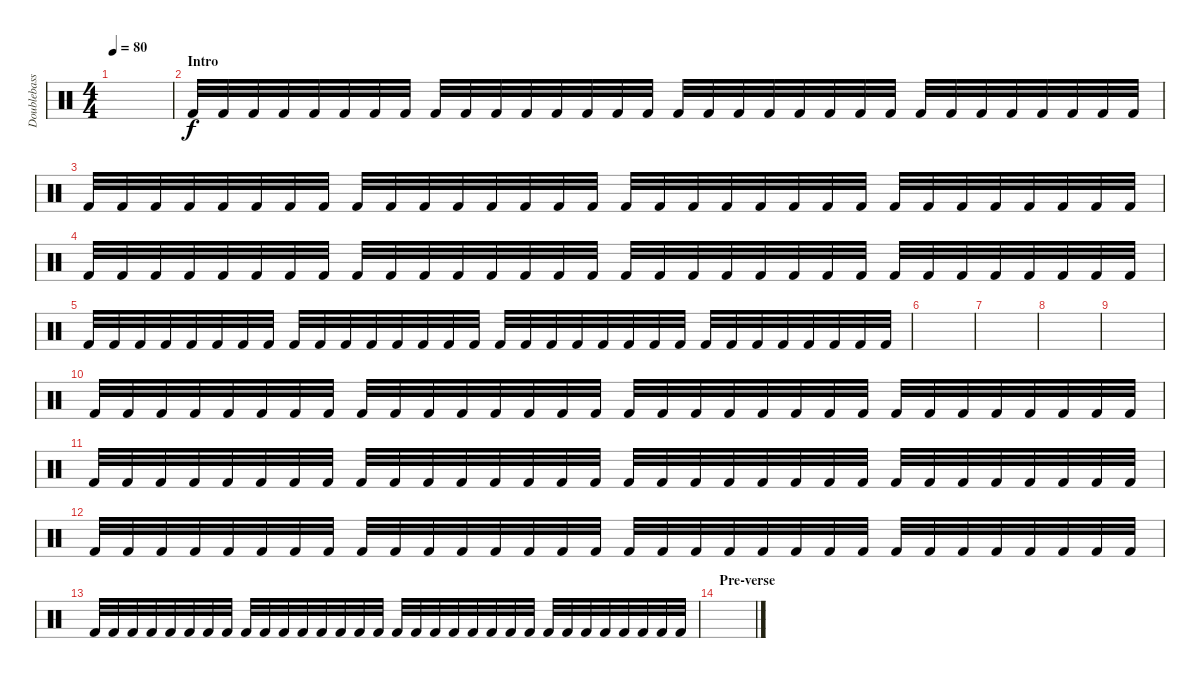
\track ("Doublebass" "Doublebass") {instrument percussion}
\staff {score}
\articulation defaults
\ts (4 4)
\tempo 80
\clef neutral
\ks c
|
\section ("" "Intro")
"Kick (hit) 2".32 "Kick (hit) 2".32 "Kick (hit) 2".32 "Kick (hit) 2".32 "Kick (hit) 2".32 "Kick (hit) 2".32 "Kick (hit) 2".32 "Kick (hit) 2".32 "Kick (hit) 2".32 "Kick (hit) 2".32 "Kick (hit) 2".32 "Kick (hit) 2".32 "Kick (hit) 2".32 "Kick (hit) 2".32 "Kick (hit) 2".32 "Kick (hit) 2".32 "Kick (hit) 2".32 "Kick (hit) 2".32 "Kick (hit) 2".32 "Kick (hit) 2".32 "Kick (hit) 2".32 "Kick (hit) 2".32 "Kick (hit) 2".32 "Kick (hit) 2".32 "Kick (hit) 2".32 "Kick (hit) 2".32 "Kick (hit) 2".32 "Kick (hit) 2".32 "Kick (hit) 2".32 "Kick (hit) 2".32 "Kick (hit) 2".32 "Kick (hit) 2".32 |
"Kick (hit) 2".32 "Kick (hit) 2".32 "Kick (hit) 2".32 "Kick (hit) 2".32 "Kick (hit) 2".32 "Kick (hit) 2".32 "Kick (hit) 2".32 "Kick (hit) 2".32 "Kick (hit) 2".32 "Kick (hit) 2".32 "Kick (hit) 2".32 "Kick (hit) 2".32 "Kick (hit) 2".32 "Kick (hit) 2".32 "Kick (hit) 2".32 "Kick (hit) 2".32 "Kick (hit) 2".32 "Kick (hit) 2".32 "Kick (hit) 2".32 "Kick (hit) 2".32 "Kick (hit) 2".32 "Kick (hit) 2".32 "Kick (hit) 2".32 "Kick (hit) 2".32 "Kick (hit) 2".32 "Kick (hit) 2".32 "Kick (hit) 2".32 "Kick (hit) 2".32 "Kick (hit) 2".32 "Kick (hit) 2".32 "Kick (hit) 2".32 "Kick (hit) 2".32 |
"Kick (hit) 2".32 "Kick (hit) 2".32 "Kick (hit) 2".32 "Kick (hit) 2".32 "Kick (hit) 2".32 "Kick (hit) 2".32 "Kick (hit) 2".32 "Kick (hit) 2".32 "Kick (hit) 2".32 "Kick (hit) 2".32 "Kick (hit) 2".32 "Kick (hit) 2".32 "Kick (hit) 2".32 "Kick (hit) 2".32 "Kick (hit) 2".32 "Kick (hit) 2".32 "Kick (hit) 2".32 "Kick (hit) 2".32 "Kick (hit) 2".32 "Kick (hit) 2".32 "Kick (hit) 2".32 "Kick (hit) 2".32 "Kick (hit) 2".32 "Kick (hit) 2".32 "Kick (hit) 2".32 "Kick (hit) 2".32 "Kick (hit) 2".32 "Kick (hit) 2".32 "Kick (hit) 2".32 "Kick (hit) 2".32 "Kick (hit) 2".32 "Kick (hit) 2".32 |
"Kick (hit) 2".32 "Kick (hit) 2".32 "Kick (hit) 2".32 "Kick (hit) 2".32 "Kick (hit) 2".32 "Kick (hit) 2".32 "Kick (hit) 2".32 "Kick (hit) 2".32 "Kick (hit) 2".32 "Kick (hit) 2".32 "Kick (hit) 2".32 "Kick (hit) 2".32 "Kick (hit) 2".32 "Kick (hit) 2".32 "Kick (hit) 2".32 "Kick (hit) 2".32 "Kick (hit) 2".32 "Kick (hit) 2".32 "Kick (hit) 2".32 "Kick (hit) 2".32 "Kick (hit) 2".32 "Kick (hit) 2".32 "Kick (hit) 2".32 "Kick (hit) 2".32 "Kick (hit) 2".32 "Kick (hit) 2".32 "Kick (hit) 2".32 "Kick (hit) 2".32 "Kick (hit) 2".32 "Kick (hit) 2".32 "Kick (hit) 2".32 "Kick (hit) 2".32 |
|
|
|
|
"Kick (hit) 2".32 "Kick (hit) 2".32 "Kick (hit) 2".32 "Kick (hit) 2".32 "Kick (hit) 2".32 "Kick (hit) 2".32 "Kick (hit) 2".32 "Kick (hit) 2".32 "Kick (hit) 2".32 "Kick (hit) 2".32 "Kick (hit) 2".32 "Kick (hit) 2".32 "Kick (hit) 2".32 "Kick (hit) 2".32 "Kick (hit) 2".32 "Kick (hit) 2".32 "Kick (hit) 2".32 "Kick (hit) 2".32 "Kick (hit) 2".32 "Kick (hit) 2".32 "Kick (hit) 2".32 "Kick (hit) 2".32 "Kick (hit) 2".32 "Kick (hit) 2".32 "Kick (hit) 2".32 "Kick (hit) 2".32 "Kick (hit) 2".32 "Kick (hit) 2".32 "Kick (hit) 2".32 "Kick (hit) 2".32 "Kick (hit) 2".32 "Kick (hit) 2".32 |
"Kick (hit) 2".32 "Kick (hit) 2".32 "Kick (hit) 2".32 "Kick (hit) 2".32 "Kick (hit) 2".32 "Kick (hit) 2".32 "Kick (hit) 2".32 "Kick (hit) 2".32 "Kick (hit) 2".32 "Kick (hit) 2".32 "Kick (hit) 2".32 "Kick (hit) 2".32 "Kick (hit) 2".32 "Kick (hit) 2".32 "Kick (hit) 2".32 "Kick (hit) 2".32 "Kick (hit) 2".32 "Kick (hit) 2".32 "Kick (hit) 2".32 "Kick (hit) 2".32 "Kick (hit) 2".32 "Kick (hit) 2".32 "Kick (hit) 2".32 "Kick (hit) 2".32 "Kick (hit) 2".32 "Kick (hit) 2".32 "Kick (hit) 2".32 "Kick (hit) 2".32 "Kick (hit) 2".32 "Kick (hit) 2".32 "Kick (hit) 2".32 "Kick (hit) 2".32 |
"Kick (hit) 2".32 "Kick (hit) 2".32 "Kick (hit) 2".32 "Kick (hit) 2".32 "Kick (hit) 2".32 "Kick (hit) 2".32 "Kick (hit) 2".32 "Kick (hit) 2".32 "Kick (hit) 2".32 "Kick (hit) 2".32 "Kick (hit) 2".32 "Kick (hit) 2".32 "Kick (hit) 2".32 "Kick (hit) 2".32 "Kick (hit) 2".32 "Kick (hit) 2".32 "Kick (hit) 2".32 "Kick (hit) 2".32 "Kick (hit) 2".32 "Kick (hit) 2".32 "Kick (hit) 2".32 "Kick (hit) 2".32 "Kick (hit) 2".32 "Kick (hit) 2".32 "Kick (hit) 2".32 "Kick (hit) 2".32 "Kick (hit) 2".32 "Kick (hit) 2".32 "Kick (hit) 2".32 "Kick (hit) 2".32 "Kick (hit) 2".32 "Kick (hit) 2".32 |
"Kick (hit) 2".32 "Kick (hit) 2".32 "Kick (hit) 2".32 "Kick (hit) 2".32 "Kick (hit) 2".32 "Kick (hit) 2".32 "Kick (hit) 2".32 "Kick (hit) 2".32 "Kick (hit) 2".32 "Kick (hit) 2".32 "Kick (hit) 2".32 "Kick (hit) 2".32 "Kick (hit) 2".32 "Kick (hit) 2".32 "Kick (hit) 2".32 "Kick (hit) 2".32 "Kick (hit) 2".32 "Kick (hit) 2".32 "Kick (hit) 2".32 "Kick (hit) 2".32 "Kick (hit) 2".32 "Kick (hit) 2".32 "Kick (hit) 2".32 "Kick (hit) 2".32 "Kick (hit) 2".32 "Kick (hit) 2".32 "Kick (hit) 2".32 "Kick (hit) 2".32 "Kick (hit) 2".32 "Kick (hit) 2".32 "Kick (hit) 2".32 "Kick (hit) 2".32 |
\section ("" "Pre-verse")
